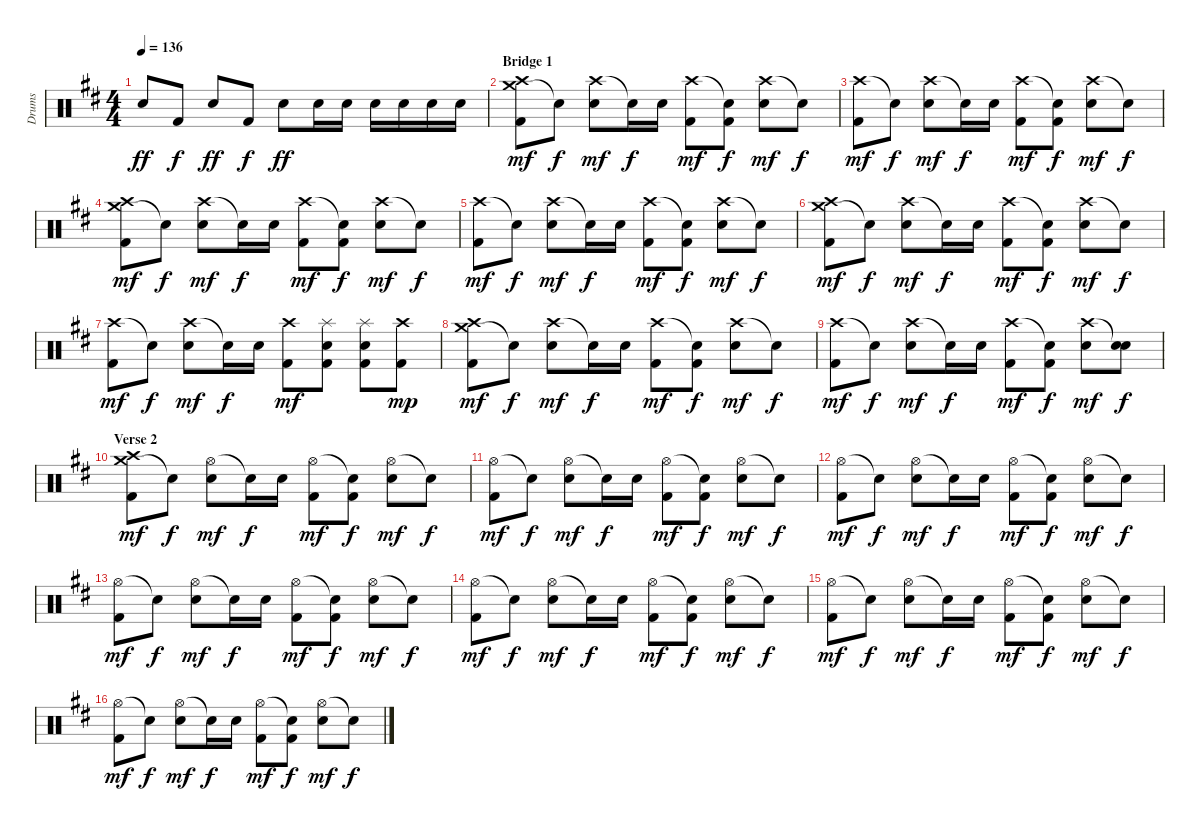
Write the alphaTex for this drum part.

\track ("Drums" "Drums") {instrument percussion}
\staff {score}
\articulation defaults
\ts (4 4)
\tempo 136
\clef neutral
\ks d "Electric Snare (hit)".8{dy ff} "Kick (hit) 2".8{dy f} "Electric Snare (hit)".8{dy ff} "Kick (hit) 2".8{dy f} "Electric Snare (hit)".8{dy ff} "Electric Snare (hit)".16 "Electric Snare (hit)".16 "Electric Snare (hit)".16 "Electric Snare (hit)".16 "Electric Snare (hit)".16 "Electric Snare (hit)".16
|
\section ("" "Bridge 1")
("Crash medium (hit)" "Crash high (hit)" "Kick (hit) 2").8{dy mf} "Snare (hit)"{t}.8{dy f} ("Crash high (hit)" "Electric Snare (hit)").8{dy mf} "Snare (hit)"{t}.16{dy f} "Electric Snare (hit)".16 ("Crash high (hit)" "Kick (hit) 2").8{dy mf} ("Snare (hit)"{t} "Kick (hit) 2").8{dy f} ("Crash high (hit)" "Electric Snare (hit)").8{dy mf} "Snare (hit)"{t}.8{dy f} |
("Crash high (hit)" "Kick (hit) 2").8{dy mf} "Snare (hit)"{t}.8{dy f} ("Crash high (hit)" "Electric Snare (hit)").8{dy mf} "Snare (hit)"{t}.16{dy f} "Electric Snare (hit)".16 ("Crash high (hit)" "Kick (hit) 2").8{dy mf} ("Snare (hit)"{t} "Kick (hit) 2").8{dy f} ("Crash high (hit)" "Electric Snare (hit)").8{dy mf} "Snare (hit)"{t}.8{dy f} |
("Crash medium (hit)" "Crash high (hit)" "Kick (hit) 2").8{dy mf} "Snare (hit)"{t}.8{dy f} ("Crash high (hit)" "Electric Snare (hit)").8{dy mf} "Snare (hit)"{t}.16{dy f} "Electric Snare (hit)".16 ("Crash high (hit)" "Kick (hit) 2").8{dy mf} ("Snare (hit)"{t} "Kick (hit) 2").8{dy f} ("Crash high (hit)" "Electric Snare (hit)").8{dy mf} "Snare (hit)"{t}.8{dy f} |
("Crash high (hit)" "Kick (hit) 2").8{dy mf} "Snare (hit)"{t}.8{dy f} ("Crash high (hit)" "Electric Snare (hit)").8{dy mf} "Snare (hit)"{t}.16{dy f} "Electric Snare (hit)".16 ("Crash high (hit)" "Kick (hit) 2").8{dy mf} ("Snare (hit)"{t} "Kick (hit) 2").8{dy f} ("Crash high (hit)" "Electric Snare (hit)").8{dy mf} "Snare (hit)"{t}.8{dy f} |
("Crash medium (hit)" "Crash high (hit)" "Kick (hit) 2").8{dy mf} "Snare (hit)"{t}.8{dy f} ("Crash high (hit)" "Electric Snare (hit)").8{dy mf} "Snare (hit)"{t}.16{dy f} "Electric Snare (hit)".16 ("Crash high (hit)" "Kick (hit) 2").8{dy mf} ("Snare (hit)"{t} "Kick (hit) 2").8{dy f} ("Crash high (hit)" "Electric Snare (hit)").8{dy mf} "Snare (hit)"{t}.8{dy f} |
("Crash high (hit)" "Kick (hit) 2").8{dy mf} "Snare (hit)"{t}.8{dy f} ("Crash high (hit)" "Electric Snare (hit)").8{dy mf} "Snare (hit)"{t}.16{dy f} "Electric Snare (hit)".16 ("Crash high (hit)" "Kick (hit) 2").8{dy mf} ("Splash (hit)" "Electric Snare (hit)" "Kick (hit) 2").8 ("Splash (hit)" "Electric Snare (hit)" "Kick (hit) 2").8 ("Crash high (hit)" "Kick (hit) 2").8{dy mp} |
("Crash medium (hit)" "Crash high (hit)" "Kick (hit) 2").8{dy mf} "Snare (hit)"{t}.8{dy f} ("Crash high (hit)" "Electric Snare (hit)").8{dy mf} "Snare (hit)"{t}.16{dy f} "Electric Snare (hit)".16 ("Crash high (hit)" "Kick (hit) 2").8{dy mf} ("Snare (hit)"{t} "Kick (hit) 2").8{dy f} ("Crash high (hit)" "Electric Snare (hit)").8{dy mf} "Snare (hit)"{t}.8{dy f} |
("Crash high (hit)" "Kick (hit) 2").8{dy mf} "Snare (hit)"{t}.8{dy f} ("Crash high (hit)" "Electric Snare (hit)").8{dy mf} "Snare (hit)"{t}.16{dy f} "Electric Snare (hit)".16 ("Crash high (hit)" "Kick (hit) 2").8{dy mf} ("Snare (hit)"{t} "Kick (hit) 2").8{dy f} ("Crash high (hit)" "Electric Snare (hit)").8{dy mf} ("Snare (hit)"{t} "Electric Snare (hit)").8{dy f} |
\section ("" "Verse 2")
("Crash medium (hit)" "Crash high (hit)" "Kick (hit) 2").8{dy mf} "Snare (hit)"{t}.8{dy f} ("Hi-Hat (open)" "Electric Snare (hit)").8{dy mf} "Snare (hit)"{t}.16{dy f} "Electric Snare (hit)".16 ("Hi-Hat (open)" "Kick (hit) 2").8{dy mf} ("Snare (hit)"{t} "Kick (hit) 2").8{dy f} ("Hi-Hat (open)" "Electric Snare (hit)").8{dy mf} "Snare (hit)"{t}.8{dy f} |
("Hi-Hat (open)" "Kick (hit) 2").8{dy mf} "Snare (hit)"{t}.8{dy f} ("Hi-Hat (open)" "Electric Snare (hit)").8{dy mf} "Snare (hit)"{t}.16{dy f} "Electric Snare (hit)".16 ("Hi-Hat (open)" "Kick (hit) 2").8{dy mf} ("Snare (hit)"{t} "Kick (hit) 2").8{dy f} ("Hi-Hat (open)" "Electric Snare (hit)").8{dy mf} "Snare (hit)"{t}.8{dy f} |
("Hi-Hat (open)" "Kick (hit) 2").8{dy mf} "Snare (hit)"{t}.8{dy f} ("Hi-Hat (open)" "Electric Snare (hit)").8{dy mf} "Snare (hit)"{t}.16{dy f} "Electric Snare (hit)".16 ("Hi-Hat (open)" "Kick (hit) 2").8{dy mf} ("Snare (hit)"{t} "Kick (hit) 2").8{dy f} ("Hi-Hat (open)" "Electric Snare (hit)").8{dy mf} "Snare (hit)"{t}.8{dy f} |
("Hi-Hat (open)" "Kick (hit) 2").8{dy mf} "Snare (hit)"{t}.8{dy f} ("Hi-Hat (open)" "Electric Snare (hit)").8{dy mf} "Snare (hit)"{t}.16{dy f} "Electric Snare (hit)".16 ("Hi-Hat (open)" "Kick (hit) 2").8{dy mf} ("Snare (hit)"{t} "Kick (hit) 2").8{dy f} ("Hi-Hat (open)" "Electric Snare (hit)").8{dy mf} "Snare (hit)"{t}.8{dy f} |
("Hi-Hat (open)" "Kick (hit) 2").8{dy mf} "Snare (hit)"{t}.8{dy f} ("Hi-Hat (open)" "Electric Snare (hit)").8{dy mf} "Snare (hit)"{t}.16{dy f} "Electric Snare (hit)".16 ("Hi-Hat (open)" "Kick (hit) 2").8{dy mf} ("Snare (hit)"{t} "Kick (hit) 2").8{dy f} ("Hi-Hat (open)" "Electric Snare (hit)").8{dy mf} "Snare (hit)"{t}.8{dy f} |
("Hi-Hat (open)" "Kick (hit) 2").8{dy mf} "Snare (hit)"{t}.8{dy f} ("Hi-Hat (open)" "Electric Snare (hit)").8{dy mf} "Snare (hit)"{t}.16{dy f} "Electric Snare (hit)".16 ("Hi-Hat (open)" "Kick (hit) 2").8{dy mf} ("Snare (hit)"{t} "Kick (hit) 2").8{dy f} ("Hi-Hat (open)" "Electric Snare (hit)").8{dy mf} "Snare (hit)"{t}.8{dy f} |
("Hi-Hat (open)" "Kick (hit) 2").8{dy mf} "Snare (hit)"{t}.8{dy f} ("Hi-Hat (open)" "Electric Snare (hit)").8{dy mf} "Snare (hit)"{t}.16{dy f} "Electric Snare (hit)".16 ("Hi-Hat (open)" "Kick (hit) 2").8{dy mf} ("Snare (hit)"{t} "Kick (hit) 2").8{dy f} ("Hi-Hat (open)" "Electric Snare (hit)").8{dy mf} "Snare (hit)"{t}.8{dy f}
